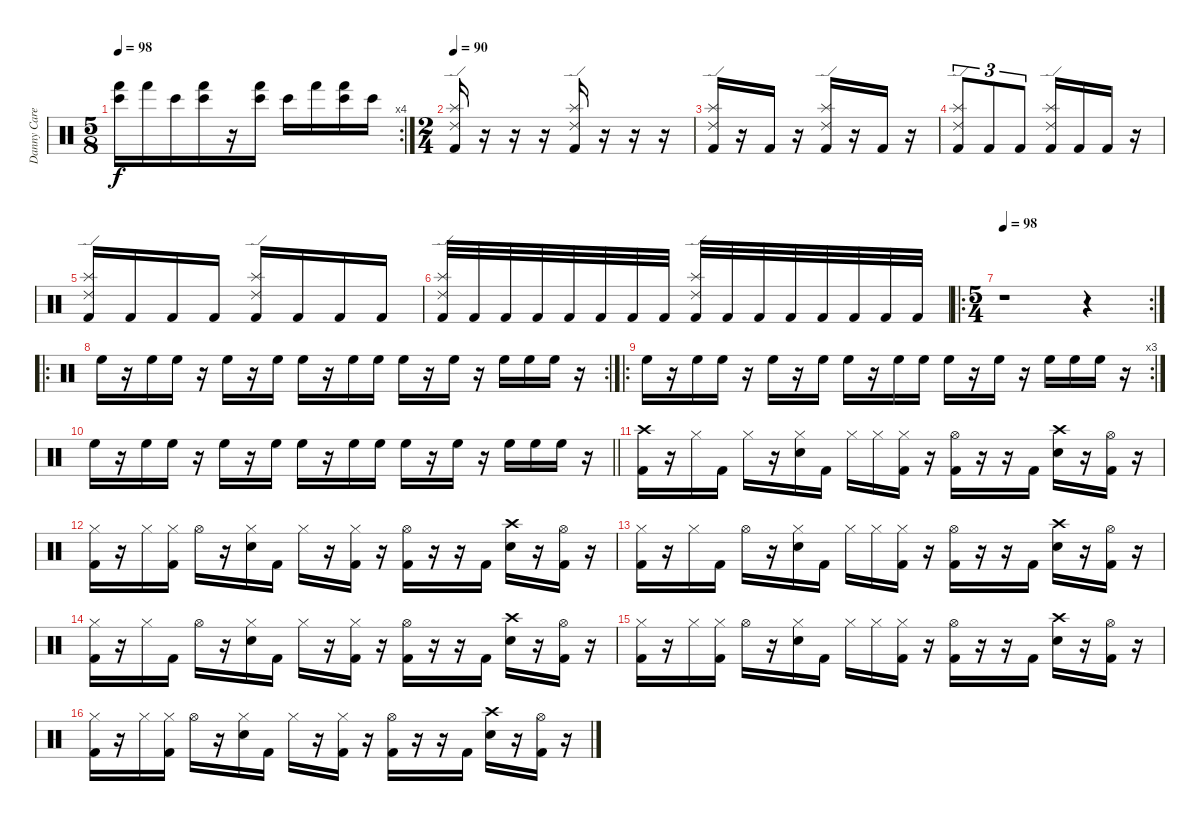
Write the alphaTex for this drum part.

\track ("Danny Carey" "Danny Care") {instrument percussion}
\staff {score}
\articulation defaults
\rc 4
\ts (5 8)
\tempo 98
\clef neutral
\ks c
("Bongo High (hit)" "Hand (hit)").16{dy f} "Hand (hit)".16 "Bongo High (hit)".16 ("Bongo High (hit)" "Hand (hit)").16 r.16 ("Bongo High (hit)" "Hand (hit)").16 "Bongo High (hit)".16 "Hand (hit)".16 ("Bongo High (hit)" "Hand (hit)").16 "Bongo High (hit)".16 |
\ts (2 4)
\tempo 90
("Ride (edge) 2" "Splash (hit)" "Kick (hit) 2").16 r.16 r.16 r.16 ("Ride (edge) 2" "Splash (hit)" "Kick (hit) 2").16 r.16 r.16 r.16 |
("Ride (edge) 2" "Splash (hit)" "Kick (hit) 2").16 r.16 "Kick (hit) 2".16 r.16 ("Ride (edge) 2" "Splash (hit)" "Kick (hit) 2").16 r.16 "Kick (hit) 2".16 r.16 |
("Ride (edge) 2" "Splash (hit)" "Kick (hit) 2").8{tu (3 2)} "Kick (hit) 2".8{tu (3 2)} "Kick (hit) 2".8{tu (3 2)} ("Ride (edge) 2" "Splash (hit)" "Kick (hit) 2").16 "Kick (hit) 2".16 "Kick (hit) 2".16 r.16 |
("Ride (edge) 2" "Splash (hit)" "Kick (hit) 2").16 "Kick (hit) 2".16 "Kick (hit) 2".16 "Kick (hit) 2".16 ("Ride (edge) 2" "Splash (hit)" "Kick (hit) 2").16 "Kick (hit) 2".16 "Kick (hit) 2".16 "Kick (hit) 2".16 |
("Ride (edge) 2" "Splash (hit)" "Kick (hit) 2").32 "Kick (hit) 2".32 "Kick (hit) 2".32 "Kick (hit) 2".32 "Kick (hit) 2".32 "Kick (hit) 2".32 "Kick (hit) 2".32 "Kick (hit) 2".32 ("Ride (edge) 2" "Splash (hit)" "Kick (hit) 2").32 "Kick (hit) 2".32 "Kick (hit) 2".32 "Kick (hit) 2".32 "Kick (hit) 2".32 "Kick (hit) 2".32 "Kick (hit) 2".32 "Kick (hit) 2".32 |
\ro
\rc 2
\ts (5 4)
\tempo 98
r.1 r.4 |
\ro
\rc 2 "High Floor Tom (hit)".16
r.16 "High Floor Tom (hit)".16 "High Floor Tom (hit)".16 r.16 "High Floor Tom (hit)".16 r.16 "High Floor Tom (hit)".16 "High Floor Tom (hit)".16 r.16 "High Floor Tom (hit)".16 "High Floor Tom (hit)".16 "High Floor Tom (hit)".16 r.16 "High Floor Tom (hit)".16 r.16 "High Floor Tom (hit)".16 "High Floor Tom (hit)".16 "High Floor Tom (hit)".16 r.16 |
\ro
\rc 3 "High Floor Tom (hit)".16
r.16 "High Floor Tom (hit)".16 "High Floor Tom (hit)".16 r.16 "High Floor Tom (hit)".16 r.16 "High Floor Tom (hit)".16 "High Floor Tom (hit)".16 r.16 "High Floor Tom (hit)".16 "High Floor Tom (hit)".16 "High Floor Tom (hit)".16 r.16 "High Floor Tom (hit)".16 r.16 "High Floor Tom (hit)".16 "High Floor Tom (hit)".16 "High Floor Tom (hit)".16 r.16 |
\barLineRight lightlight "High Floor Tom (hit)".16
r.16 "High Floor Tom (hit)".16 "High Floor Tom (hit)".16 r.16 "High Floor Tom (hit)".16 r.16 "High Floor Tom (hit)".16 "High Floor Tom (hit)".16 r.16 "High Floor Tom (hit)".16 "High Floor Tom (hit)".16 "High Floor Tom (hit)".16 r.16 "High Floor Tom (hit)".16 r.16 "High Floor Tom (hit)".16 "High Floor Tom (hit)".16 "High Floor Tom (hit)".16 r.16 |
("Crash high (hit)" "Kick (hit) 2").16 r.16 "Hi-Hat (closed)".16 "Kick (hit) 2".16 "Hi-Hat (closed)".16 r.16 ("Hi-Hat (closed)" "Electric Snare (hit)").16 "Kick (hit) 2".16 "Hi-Hat (closed)".16 "Hi-Hat (closed)".16 ("Hi-Hat (closed)" "Kick (hit) 2").16 r.16 ("Hi-Hat (open)" "Kick (hit) 2").16 r.16 r.16 "Kick (hit) 2".16 ("Crash high (hit)" "Electric Snare (hit)").16 r.16 ("Hi-Hat (open)" "Kick (hit) 2").16 r.16 |
("Hi-Hat (closed)" "Kick (hit) 2").16 r.16 "Hi-Hat (closed)".16 ("Hi-Hat (closed)" "Kick (hit) 2").16 "Hi-Hat (open)".16 r.16 ("Hi-Hat (closed)" "Electric Snare (hit)").16 "Kick (hit) 2".16 "Hi-Hat (closed)".16 r.16 ("Hi-Hat (closed)" "Kick (hit) 2").16 r.16 ("Hi-Hat (open)" "Kick (hit) 2").16 r.16 r.16 "Kick (hit) 2".16 ("Crash high (hit)" "Electric Snare (hit)").16 r.16 ("Hi-Hat (open)" "Kick (hit) 2").16 r.16 |
("Hi-Hat (closed)" "Kick (hit) 2").16 r.16 "Hi-Hat (closed)".16 "Kick (hit) 2".16 "Hi-Hat (open)".16 r.16 ("Hi-Hat (closed)" "Electric Snare (hit)").16 "Kick (hit) 2".16 "Hi-Hat (closed)".16 "Hi-Hat (closed)".16 ("Hi-Hat (closed)" "Kick (hit) 2").16 r.16 ("Hi-Hat (open)" "Kick (hit) 2").16 r.16 r.16 "Kick (hit) 2".16 ("Crash high (hit)" "Electric Snare (hit)").16 r.16 ("Hi-Hat (open)" "Kick (hit) 2").16 r.16 |
("Hi-Hat (closed)" "Kick (hit) 2").16 r.16 "Hi-Hat (closed)".16 "Kick (hit) 2".16 "Hi-Hat (open)".16 r.16 ("Hi-Hat (closed)" "Electric Snare (hit)").16 "Kick (hit) 2".16 "Hi-Hat (closed)".16 r.16 ("Hi-Hat (closed)" "Kick (hit) 2").16 r.16 ("Hi-Hat (open)" "Kick (hit) 2").16 r.16 r.16 "Kick (hit) 2".16 ("Crash high (hit)" "Electric Snare (hit)").16 r.16 ("Hi-Hat (open)" "Kick (hit) 2").16 r.16 |
("Hi-Hat (closed)" "Kick (hit) 2").16 r.16 "Hi-Hat (closed)".16 ("Hi-Hat (closed)" "Kick (hit) 2").16 "Hi-Hat (open)".16 r.16 ("Hi-Hat (closed)" "Electric Snare (hit)").16 "Kick (hit) 2".16 "Hi-Hat (closed)".16 "Hi-Hat (closed)".16 ("Hi-Hat (closed)" "Kick (hit) 2").16 r.16 ("Hi-Hat (open)" "Kick (hit) 2").16 r.16 r.16 "Kick (hit) 2".16 ("Crash high (hit)" "Electric Snare (hit)").16 r.16 ("Hi-Hat (open)" "Kick (hit) 2").16 r.16 |
("Hi-Hat (closed)" "Kick (hit) 2").16 r.16 "Hi-Hat (closed)".16 ("Hi-Hat (closed)" "Kick (hit) 2").16 "Hi-Hat (open)".16 r.16 ("Hi-Hat (closed)" "Electric Snare (hit)").16 "Kick (hit) 2".16 "Hi-Hat (closed)".16 r.16 ("Hi-Hat (closed)" "Kick (hit) 2").16 r.16 ("Hi-Hat (open)" "Kick (hit) 2").16 r.16 r.16 "Kick (hit) 2".16 ("Crash high (hit)" "Electric Snare (hit)").16 r.16 ("Hi-Hat (open)" "Kick (hit) 2").16 r.16
